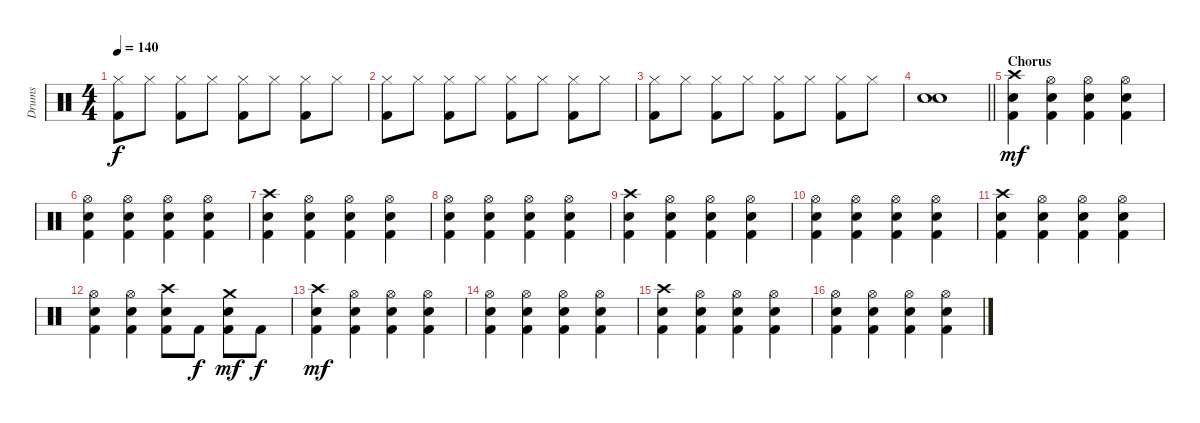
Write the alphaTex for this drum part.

\track ("Drums" "Drums") {instrument percussion}
\staff {score}
\articulation defaults
\ts (4 4)
\tempo 140
\clef neutral
\ks c
("Hi-Hat (closed)" "Kick (hit) 2").8{dy f} "Hi-Hat (closed)".8 ("Hi-Hat (closed)" "Kick (hit) 2").8 "Hi-Hat (closed)".8 ("Hi-Hat (closed)" "Kick (hit) 2").8 "Hi-Hat (closed)".8 ("Hi-Hat (closed)" "Kick (hit) 2").8 "Hi-Hat (closed)".8 |
("Hi-Hat (closed)" "Kick (hit) 2").8 "Hi-Hat (closed)".8 ("Hi-Hat (closed)" "Kick (hit) 2").8 "Hi-Hat (closed)".8 ("Hi-Hat (closed)" "Kick (hit) 2").8 "Hi-Hat (closed)".8 ("Hi-Hat (closed)" "Kick (hit) 2").8 "Hi-Hat (closed)".8 |
("Hi-Hat (closed)" "Kick (hit) 2").8 "Hi-Hat (closed)".8 ("Hi-Hat (closed)" "Kick (hit) 2").8 "Hi-Hat (closed)".8 ("Hi-Hat (closed)" "Kick (hit) 2").8 "Hi-Hat (closed)".8 ("Hi-Hat (closed)" "Kick (hit) 2").8 "Hi-Hat (closed)".8 |
\barLineRight lightlight
("Electric Snare (hit)" "Electric Snare (hit)").1 |
\section ("" "Chorus")
("Crash high (hit)" "Electric Snare (hit)" "Kick (hit) 2").4{dy mf} ("Hi-Hat (open)" "Electric Snare (hit)" "Kick (hit) 2").4 ("Hi-Hat (open)" "Electric Snare (hit)" "Kick (hit) 2").4 ("Hi-Hat (open)" "Electric Snare (hit)" "Kick (hit) 2").4 |
("Hi-Hat (open)" "Electric Snare (hit)" "Kick (hit) 2").4 ("Hi-Hat (open)" "Electric Snare (hit)" "Kick (hit) 2").4 ("Hi-Hat (open)" "Electric Snare (hit)" "Kick (hit) 2").4 ("Hi-Hat (open)" "Electric Snare (hit)" "Kick (hit) 2").4 |
("Crash high (hit)" "Electric Snare (hit)" "Kick (hit) 2").4 ("Hi-Hat (open)" "Electric Snare (hit)" "Kick (hit) 2").4 ("Hi-Hat (open)" "Electric Snare (hit)" "Kick (hit) 2").4 ("Hi-Hat (open)" "Electric Snare (hit)" "Kick (hit) 2").4 |
("Hi-Hat (open)" "Electric Snare (hit)" "Kick (hit) 2").4 ("Hi-Hat (open)" "Electric Snare (hit)" "Kick (hit) 2").4 ("Hi-Hat (open)" "Electric Snare (hit)" "Kick (hit) 2").4 ("Hi-Hat (open)" "Electric Snare (hit)" "Kick (hit) 2").4 |
("Crash high (hit)" "Electric Snare (hit)" "Kick (hit) 2").4 ("Hi-Hat (open)" "Electric Snare (hit)" "Kick (hit) 2").4 ("Hi-Hat (open)" "Electric Snare (hit)" "Kick (hit) 2").4 ("Hi-Hat (open)" "Electric Snare (hit)" "Kick (hit) 2").4 |
("Hi-Hat (open)" "Electric Snare (hit)" "Kick (hit) 2").4 ("Hi-Hat (open)" "Electric Snare (hit)" "Kick (hit) 2").4 ("Hi-Hat (open)" "Electric Snare (hit)" "Kick (hit) 2").4 ("Hi-Hat (open)" "Electric Snare (hit)" "Kick (hit) 2").4 |
("Crash high (hit)" "Electric Snare (hit)" "Kick (hit) 2").4 ("Hi-Hat (open)" "Electric Snare (hit)" "Kick (hit) 2").4 ("Hi-Hat (open)" "Electric Snare (hit)" "Kick (hit) 2").4 ("Hi-Hat (open)" "Electric Snare (hit)" "Kick (hit) 2").4 |
("Hi-Hat (open)" "Electric Snare (hit)" "Kick (hit) 2").4 ("Hi-Hat (open)" "Electric Snare (hit)" "Kick (hit) 2").4 ("Crash high (hit)" "Electric Snare (hit)" "Kick (hit) 2").8 "Kick (hit) 2".8{dy f} ("Crash medium (hit)" "Electric Snare (hit)" "Kick (hit) 2").8{dy mf} "Kick (hit) 2".8{dy f} |
("Crash high (hit)" "Electric Snare (hit)" "Kick (hit) 2").4{dy mf} ("Hi-Hat (open)" "Electric Snare (hit)" "Kick (hit) 2").4 ("Hi-Hat (open)" "Electric Snare (hit)" "Kick (hit) 2").4 ("Hi-Hat (open)" "Electric Snare (hit)" "Kick (hit) 2").4 |
("Hi-Hat (open)" "Electric Snare (hit)" "Kick (hit) 2").4 ("Hi-Hat (open)" "Electric Snare (hit)" "Kick (hit) 2").4 ("Hi-Hat (open)" "Electric Snare (hit)" "Kick (hit) 2").4 ("Hi-Hat (open)" "Electric Snare (hit)" "Kick (hit) 2").4 |
("Crash high (hit)" "Electric Snare (hit)" "Kick (hit) 2").4 ("Hi-Hat (open)" "Electric Snare (hit)" "Kick (hit) 2").4 ("Hi-Hat (open)" "Electric Snare (hit)" "Kick (hit) 2").4 ("Hi-Hat (open)" "Electric Snare (hit)" "Kick (hit) 2").4 |
("Hi-Hat (open)" "Electric Snare (hit)" "Kick (hit) 2").4 ("Hi-Hat (open)" "Electric Snare (hit)" "Kick (hit) 2").4 ("Hi-Hat (open)" "Electric Snare (hit)" "Kick (hit) 2").4 ("Hi-Hat (open)" "Electric Snare (hit)" "Kick (hit) 2").4
